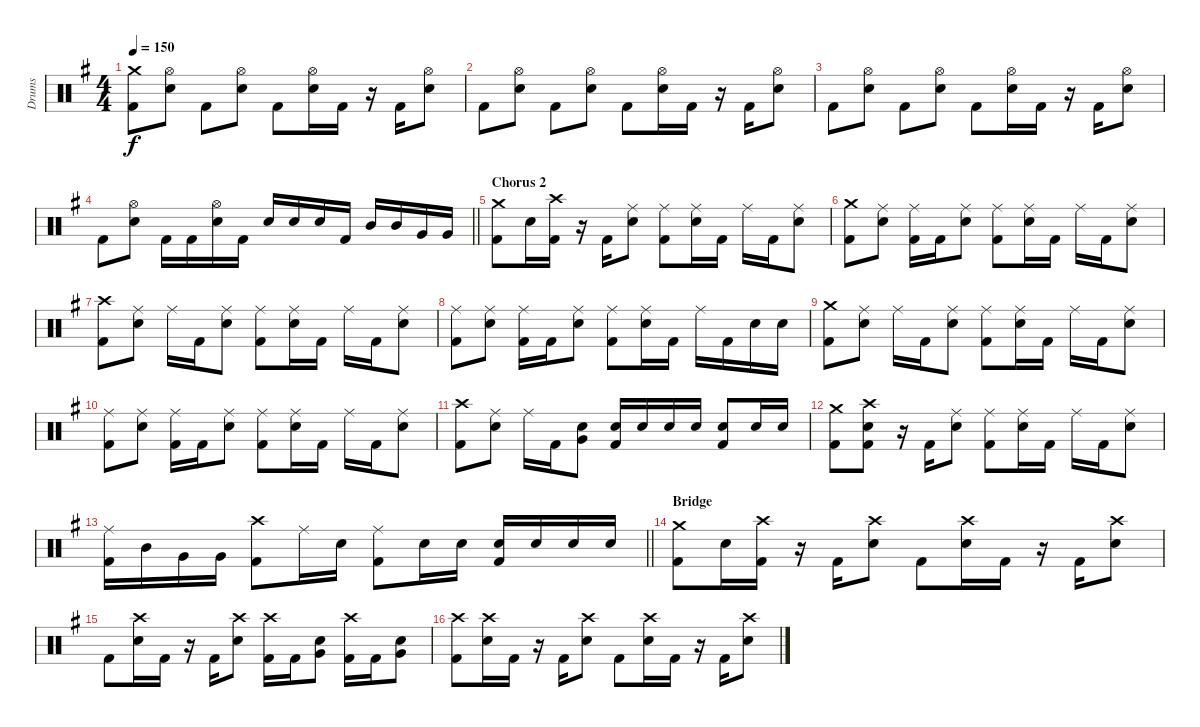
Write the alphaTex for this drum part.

\track ("Drums" "Drums") {instrument percussion}
\staff {score}
\articulation defaults
\ts (4 4)
\tempo 150
\clef neutral
\ks eminor
("Crash medium (hit)" "Kick (hit) 2").8{dy f} ("Hi-Hat (open)" "Electric Snare (hit)").8 "Kick (hit) 2".8 ("Hi-Hat (open)" "Electric Snare (hit)").8 "Kick (hit) 2".8 ("Hi-Hat (open)" "Electric Snare (hit)").16 "Kick (hit) 2".16 r.16 "Kick (hit) 2".16 ("Hi-Hat (open)" "Electric Snare (hit)").8 |
"Kick (hit) 2".8 ("Hi-Hat (open)" "Electric Snare (hit)").8 "Kick (hit) 2".8 ("Hi-Hat (open)" "Electric Snare (hit)").8 "Kick (hit) 2".8 ("Hi-Hat (open)" "Electric Snare (hit)").16 "Kick (hit) 2".16 r.16 "Kick (hit) 2".16 ("Hi-Hat (open)" "Electric Snare (hit)").8 |
"Kick (hit) 2".8 ("Hi-Hat (open)" "Electric Snare (hit)").8 "Kick (hit) 2".8 ("Hi-Hat (open)" "Electric Snare (hit)").8 "Kick (hit) 2".8 ("Hi-Hat (open)" "Electric Snare (hit)").16 "Kick (hit) 2".16 r.16 "Kick (hit) 2".16 ("Hi-Hat (open)" "Electric Snare (hit)").8 |
\barLineRight lightlight "Kick (hit) 2".8
("Hi-Hat (open)" "Electric Snare (hit)").8 "Kick (hit) 2".16 "Kick (hit) 2".16 ("Hi-Hat (open)" "Electric Snare (hit)").16 "Kick (hit) 2".16 "Electric Snare (hit)".16 "Electric Snare (hit)".16 "Electric Snare (hit)".16 "Kick (hit) 2".16 "Mid Tom (hit)".16 "Mid Tom (hit)".16 "Very Low Tom (hit)".16 "Very Low Tom (hit)".16 |
\section ("" "Chorus 2")
("Crash medium (hit)" "Kick (hit) 2").8 "Electric Snare (hit)".16 ("Crash high (hit)" "Kick (hit) 2").16 r.16 "Kick (hit) 2".16 ("Ride (middle)" "Electric Snare (hit)").8 ("Ride (middle)" "Kick (hit) 2").8 ("Ride (middle)" "Electric Snare (hit)").16 "Kick (hit) 2".16 "Ride (middle)".16 "Kick (hit) 2".16 ("Ride (middle)" "Electric Snare (hit)").8 |
("Crash medium (hit)" "Kick (hit) 2").8 ("Ride (middle)" "Electric Snare (hit)").8 ("Ride (middle)" "Kick (hit) 2").16 "Kick (hit) 2".16 ("Ride (middle)" "Electric Snare (hit)").8 ("Ride (middle)" "Kick (hit) 2").8 ("Ride (middle)" "Electric Snare (hit)").16 "Kick (hit) 2".16 "Ride (middle)".16 "Kick (hit) 2".16 ("Ride (middle)" "Electric Snare (hit)").8 |
("Crash high (hit)" "Kick (hit) 2").8 ("Ride (middle)" "Electric Snare (hit)").8 "Ride (middle)".16 "Kick (hit) 2".16 ("Ride (middle)" "Electric Snare (hit)").8 ("Ride (middle)" "Kick (hit) 2").8 ("Ride (middle)" "Electric Snare (hit)").16 "Kick (hit) 2".16 "Ride (middle)".16 "Kick (hit) 2".16 ("Ride (middle)" "Electric Snare (hit)").8 |
("Ride (middle)" "Kick (hit) 2").8 ("Ride (middle)" "Electric Snare (hit)").8 ("Ride (middle)" "Kick (hit) 2").16 "Kick (hit) 2".16 ("Ride (middle)" "Electric Snare (hit)").8 ("Ride (middle)" "Kick (hit) 2").8 ("Ride (middle)" "Electric Snare (hit)").16 "Kick (hit) 2".16 "Ride (middle)".16 "Kick (hit) 2".16 "Electric Snare (hit)".16 "Electric Snare (hit)".16 |
("Crash medium (hit)" "Kick (hit) 2").8 ("Ride (middle)" "Electric Snare (hit)").8 "Ride (middle)".16 "Kick (hit) 2".16 ("Ride (middle)" "Electric Snare (hit)").8 ("Ride (middle)" "Kick (hit) 2").8 ("Ride (middle)" "Electric Snare (hit)").16 "Kick (hit) 2".16 "Ride (middle)".16 "Kick (hit) 2".16 ("Ride (middle)" "Electric Snare (hit)").8 |
("Ride (middle)" "Kick (hit) 2").8 ("Ride (middle)" "Electric Snare (hit)").8 ("Ride (middle)" "Kick (hit) 2").16 "Kick (hit) 2".16 ("Ride (middle)" "Electric Snare (hit)").8 ("Ride (middle)" "Kick (hit) 2").8 ("Ride (middle)" "Electric Snare (hit)").16 "Kick (hit) 2".16 "Ride (middle)".16 "Kick (hit) 2".16 ("Ride (middle)" "Electric Snare (hit)").8 |
("Crash high (hit)" "Kick (hit) 2").8 ("Ride (middle)" "Electric Snare (hit)").8 "Ride (middle)".16 "Kick (hit) 2".16 ("Electric Snare (hit)" "Very Low Tom (hit)").8 ("Electric Snare (hit)" "Kick (hit) 2").16 "Electric Snare (hit)".16 "Electric Snare (hit)".16 "Electric Snare (hit)".16 ("Electric Snare (hit)" "Kick (hit) 2").8 "Electric Snare (hit)".16 "Electric Snare (hit)".16 |
("Crash medium (hit)" "Kick (hit) 2").8 ("Crash high (hit)" "Electric Snare (hit)" "Kick (hit) 2").8 r.16 "Kick (hit) 2".16 ("Ride (middle)" "Electric Snare (hit)").8 ("Ride (middle)" "Kick (hit) 2").8 ("Ride (middle)" "Electric Snare (hit)").16 "Kick (hit) 2".16 "Ride (middle)".16 "Kick (hit) 2".16 ("Ride (middle)" "Electric Snare (hit)").8 |
\barLineRight lightlight
("Ride (middle)" "Kick (hit) 2").16 "Mid Tom (hit)".16 "Very Low Tom (hit)".16 "Very Low Tom (hit)".16 ("Crash high (hit)" "Kick (hit) 2").8 "Ride (middle)".16 "Electric Snare (hit)".16 ("Ride (middle)" "Kick (hit) 2").8 "Electric Snare (hit)".16 "Electric Snare (hit)".16 ("Electric Snare (hit)" "Kick (hit) 2").16 "Electric Snare (hit)".16 "Electric Snare (hit)".16 "Electric Snare (hit)".16 |
\section ("" "Bridge")
("Crash medium (hit)" "Kick (hit) 2").8 "Electric Snare (hit)".16 ("Crash high (hit)" "Kick (hit) 2").16 r.16 "Kick (hit) 2".16 ("Crash high (hit)" "Electric Snare (hit)").8 "Kick (hit) 2".8 ("Crash high (hit)" "Electric Snare (hit)").16 "Kick (hit) 2".16 r.16 "Kick (hit) 2".16 ("Crash high (hit)" "Electric Snare (hit)").8 |
"Kick (hit) 2".8 ("Crash high (hit)" "Electric Snare (hit)").16 "Kick (hit) 2".16 r.16 "Kick (hit) 2".16 ("Crash high (hit)" "Electric Snare (hit)").8 ("Crash high (hit)" "Kick (hit) 2").16 "Kick (hit) 2".16 ("Electric Snare (hit)" "Very Low Tom (hit)").8 ("Crash high (hit)" "Kick (hit) 2").16 "Kick (hit) 2".16 ("Electric Snare (hit)" "Very Low Tom (hit)").8 |
("Crash high (hit)" "Kick (hit) 2").8 ("Crash high (hit)" "Electric Snare (hit)").16 "Kick (hit) 2".16 r.16 "Kick (hit) 2".16 ("Crash high (hit)" "Electric Snare (hit)").8 "Kick (hit) 2".8 ("Crash high (hit)" "Electric Snare (hit)").16 "Kick (hit) 2".16 r.16 "Kick (hit) 2".16 ("Crash high (hit)" "Electric Snare (hit)").8
